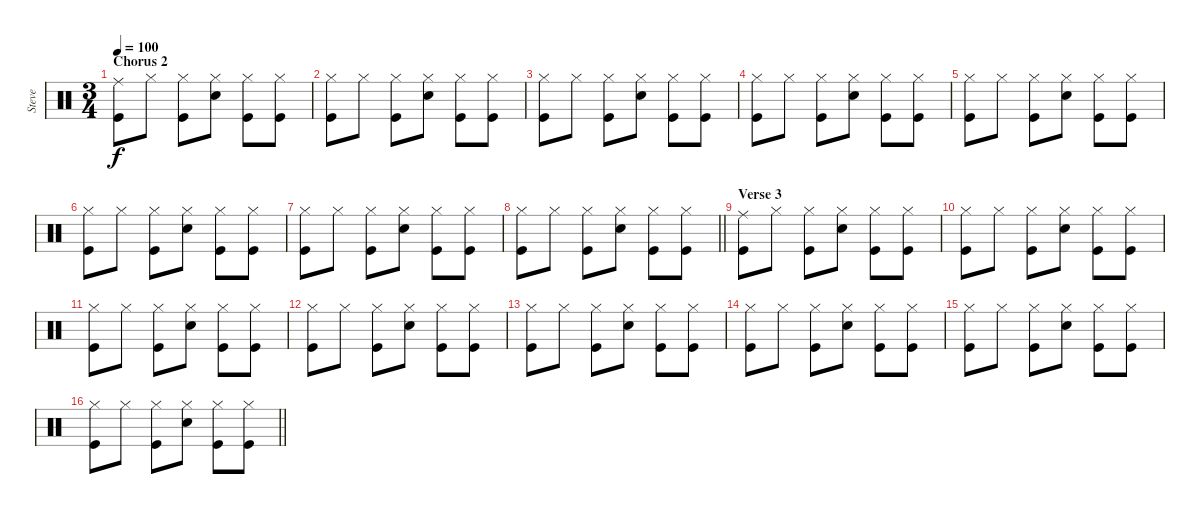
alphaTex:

\track ("Steve" "Steve") {instrument percussion}
\staff {score}
\articulation defaults
\ts (3 4)
\section ("" "Chorus 2")
\tempo 100
\clef neutral
\ks c
("Kick (hit)" "Ride (middle)").8{dy f} "Hi-Hat (closed)".8 ("Kick (hit)" "Hi-Hat (closed)").8 ("Snare (hit) 2" "Hi-Hat (closed)").8 ("Kick (hit)" "Hi-Hat (closed)").8 ("Kick (hit)" "Hi-Hat (closed)").8 |
("Kick (hit)" "Hi-Hat (closed)").8 "Hi-Hat (closed)".8 ("Kick (hit)" "Hi-Hat (closed)").8 ("Snare (hit) 2" "Hi-Hat (closed)").8 ("Kick (hit)" "Hi-Hat (closed)").8 ("Kick (hit)" "Hi-Hat (closed)").8 |
("Kick (hit)" "Hi-Hat (closed)").8 "Hi-Hat (closed)".8 ("Kick (hit)" "Hi-Hat (closed)").8 ("Snare (hit) 2" "Hi-Hat (closed)").8 ("Kick (hit)" "Hi-Hat (closed)").8 ("Kick (hit)" "Hi-Hat (closed)").8 |
("Kick (hit)" "Hi-Hat (closed)").8 "Hi-Hat (closed)".8 ("Kick (hit)" "Hi-Hat (closed)").8 ("Snare (hit) 2" "Hi-Hat (closed)").8 ("Kick (hit)" "Hi-Hat (closed)").8 ("Kick (hit)" "Hi-Hat (closed)").8 |
("Kick (hit)" "Hi-Hat (closed)").8 "Hi-Hat (closed)".8 ("Kick (hit)" "Hi-Hat (closed)").8 ("Snare (hit) 2" "Hi-Hat (closed)").8 ("Kick (hit)" "Hi-Hat (closed)").8 ("Kick (hit)" "Hi-Hat (closed)").8 |
("Kick (hit)" "Hi-Hat (closed)").8 "Hi-Hat (closed)".8 ("Kick (hit)" "Hi-Hat (closed)").8 ("Snare (hit) 2" "Hi-Hat (closed)").8 ("Kick (hit)" "Hi-Hat (closed)").8 ("Kick (hit)" "Hi-Hat (closed)").8 |
("Kick (hit)" "Hi-Hat (closed)").8 "Hi-Hat (closed)".8 ("Kick (hit)" "Hi-Hat (closed)").8 ("Snare (hit) 2" "Hi-Hat (closed)").8 ("Kick (hit)" "Hi-Hat (closed)").8 ("Kick (hit)" "Hi-Hat (closed)").8 |
\barLineRight lightlight
("Kick (hit)" "Hi-Hat (closed)").8 "Hi-Hat (closed)".8 ("Kick (hit)" "Hi-Hat (closed)").8 ("Snare (hit) 2" "Hi-Hat (closed)").8 ("Kick (hit)" "Hi-Hat (closed)").8 ("Kick (hit)" "Hi-Hat (closed)").8 |
\section ("" "Verse 3")
("Kick (hit)" "Ride (middle)").8 "Hi-Hat (closed)".8 ("Kick (hit)" "Hi-Hat (closed)").8 ("Snare (hit) 2" "Hi-Hat (closed)").8 ("Kick (hit)" "Hi-Hat (closed)").8 ("Kick (hit)" "Hi-Hat (closed)").8 |
("Kick (hit)" "Hi-Hat (closed)").8 "Hi-Hat (closed)".8 ("Kick (hit)" "Hi-Hat (closed)").8 ("Snare (hit) 2" "Hi-Hat (closed)").8 ("Kick (hit)" "Hi-Hat (closed)").8 ("Kick (hit)" "Hi-Hat (closed)").8 |
("Kick (hit)" "Hi-Hat (closed)").8 "Hi-Hat (closed)".8 ("Kick (hit)" "Hi-Hat (closed)").8 ("Snare (hit) 2" "Hi-Hat (closed)").8 ("Kick (hit)" "Hi-Hat (closed)").8 ("Kick (hit)" "Hi-Hat (closed)").8 |
("Kick (hit)" "Hi-Hat (closed)").8 "Hi-Hat (closed)".8 ("Kick (hit)" "Hi-Hat (closed)").8 ("Snare (hit) 2" "Hi-Hat (closed)").8 ("Kick (hit)" "Hi-Hat (closed)").8 ("Kick (hit)" "Hi-Hat (closed)").8 |
("Kick (hit)" "Hi-Hat (closed)").8 "Hi-Hat (closed)".8 ("Kick (hit)" "Hi-Hat (closed)").8 ("Snare (hit) 2" "Hi-Hat (closed)").8 ("Kick (hit)" "Hi-Hat (closed)").8 ("Kick (hit)" "Hi-Hat (closed)").8 |
("Kick (hit)" "Hi-Hat (closed)").8 "Hi-Hat (closed)".8 ("Kick (hit)" "Hi-Hat (closed)").8 ("Snare (hit) 2" "Hi-Hat (closed)").8 ("Kick (hit)" "Hi-Hat (closed)").8 ("Kick (hit)" "Hi-Hat (closed)").8 |
("Kick (hit)" "Hi-Hat (closed)").8 "Hi-Hat (closed)".8 ("Kick (hit)" "Hi-Hat (closed)").8 ("Snare (hit) 2" "Hi-Hat (closed)").8 ("Kick (hit)" "Hi-Hat (closed)").8 ("Kick (hit)" "Hi-Hat (closed)").8 |
\barLineRight lightlight
("Kick (hit)" "Hi-Hat (closed)").8 "Hi-Hat (closed)".8 ("Kick (hit)" "Hi-Hat (closed)").8 ("Snare (hit) 2" "Hi-Hat (closed)").8 ("Kick (hit)" "Hi-Hat (closed)").8 ("Kick (hit)" "Hi-Hat (closed)").8
